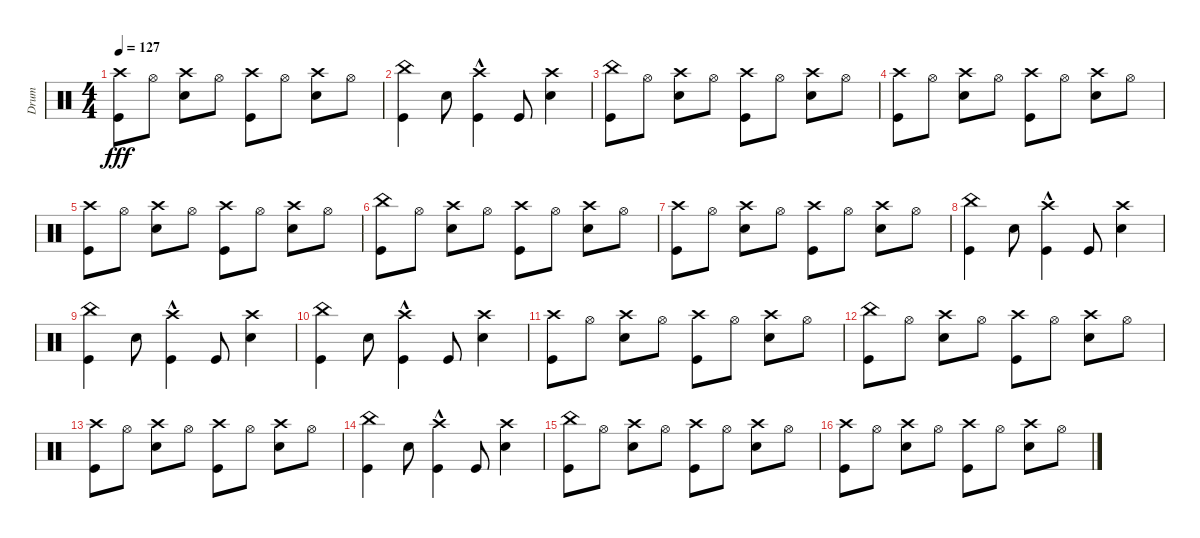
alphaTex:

\track ("Drum" "Drum") {instrument percussion}
\staff {score}
\articulation defaults
\ts (4 4)
\tempo 127
\clef neutral
\ks c
("Kick (hit)" "Crash high (hit)").8{dy fff} "Hi-Hat (open)".8 ("Crash high (hit)" "Electric Snare (hit)").8 "Hi-Hat (open)".8 ("Kick (hit)" "Crash high (hit)").8 "Hi-Hat (open)".8 ("Crash high (hit)" "Electric Snare (hit)").8 "Hi-Hat (open)".8 |
("Kick (hit)" "China (hit)").4 "Electric Snare (hit)".8 ("Crash high (hit)"{hac} "Kick (hit)").4 "Kick (hit)".8 ("Crash high (hit)" "Electric Snare (hit)").4 |
("Kick (hit)" "China (hit)").8 "Hi-Hat (open)".8 ("Crash high (hit)" "Electric Snare (hit)").8 "Hi-Hat (open)".8 ("Kick (hit)" "Crash high (hit)").8 "Hi-Hat (open)".8 ("Crash high (hit)" "Electric Snare (hit)").8 "Hi-Hat (open)".8 |
("Kick (hit)" "Crash high (hit)").8 "Hi-Hat (open)".8 ("Crash high (hit)" "Electric Snare (hit)").8 "Hi-Hat (open)".8 ("Kick (hit)" "Crash high (hit)").8 "Hi-Hat (open)".8 ("Crash high (hit)" "Electric Snare (hit)").8 "Hi-Hat (open)".8 |
("Kick (hit)" "Crash high (hit)").8 "Hi-Hat (open)".8 ("Crash high (hit)" "Electric Snare (hit)").8 "Hi-Hat (open)".8 ("Kick (hit)" "Crash high (hit)").8 "Hi-Hat (open)".8 ("Crash high (hit)" "Electric Snare (hit)").8 "Hi-Hat (open)".8 |
("Kick (hit)" "China (hit)").8 "Hi-Hat (open)".8 ("Crash high (hit)" "Electric Snare (hit)").8 "Hi-Hat (open)".8 ("Kick (hit)" "Crash high (hit)").8 "Hi-Hat (open)".8 ("Crash high (hit)" "Electric Snare (hit)").8 "Hi-Hat (open)".8 |
("Kick (hit)" "Crash high (hit)").8 "Hi-Hat (open)".8 ("Crash high (hit)" "Electric Snare (hit)").8 "Hi-Hat (open)".8 ("Kick (hit)" "Crash high (hit)").8 "Hi-Hat (open)".8 ("Crash high (hit)" "Electric Snare (hit)").8 "Hi-Hat (open)".8 |
("Kick (hit)" "China (hit)").4 "Electric Snare (hit)".8 ("Crash high (hit)"{hac} "Kick (hit)").4 "Kick (hit)".8 ("Crash high (hit)" "Electric Snare (hit)").4 |
("Kick (hit)" "China (hit)").4 "Electric Snare (hit)".8 ("Crash high (hit)"{hac} "Kick (hit)").4 "Kick (hit)".8 ("Crash high (hit)" "Electric Snare (hit)").4 |
("Kick (hit)" "China (hit)").4 "Electric Snare (hit)".8 ("Crash high (hit)"{hac} "Kick (hit)").4 "Kick (hit)".8 ("Crash high (hit)" "Electric Snare (hit)").4 |
("Kick (hit)" "Crash high (hit)").8 "Hi-Hat (open)".8 ("Crash high (hit)" "Electric Snare (hit)").8 "Hi-Hat (open)".8 ("Kick (hit)" "Crash high (hit)").8 "Hi-Hat (open)".8 ("Crash high (hit)" "Electric Snare (hit)").8 "Hi-Hat (open)".8 |
("Kick (hit)" "China (hit)").8 "Hi-Hat (open)".8 ("Crash high (hit)" "Electric Snare (hit)").8 "Hi-Hat (open)".8 ("Kick (hit)" "Crash high (hit)").8 "Hi-Hat (open)".8 ("Crash high (hit)" "Electric Snare (hit)").8 "Hi-Hat (open)".8 |
("Kick (hit)" "Crash high (hit)").8 "Hi-Hat (open)".8 ("Crash high (hit)" "Electric Snare (hit)").8 "Hi-Hat (open)".8 ("Kick (hit)" "Crash high (hit)").8 "Hi-Hat (open)".8 ("Crash high (hit)" "Electric Snare (hit)").8 "Hi-Hat (open)".8 |
("Kick (hit)" "China (hit)").4 "Electric Snare (hit)".8 ("Crash high (hit)"{hac} "Kick (hit)").4 "Kick (hit)".8 ("Crash high (hit)" "Electric Snare (hit)").4 |
("Kick (hit)" "China (hit)").8 "Hi-Hat (open)".8 ("Crash high (hit)" "Electric Snare (hit)").8 "Hi-Hat (open)".8 ("Kick (hit)" "Crash high (hit)").8 "Hi-Hat (open)".8 ("Crash high (hit)" "Electric Snare (hit)").8 "Hi-Hat (open)".8 |
("Kick (hit)" "Crash high (hit)").8 "Hi-Hat (open)".8 ("Crash high (hit)" "Electric Snare (hit)").8 "Hi-Hat (open)".8 ("Kick (hit)" "Crash high (hit)").8 "Hi-Hat (open)".8 ("Crash high (hit)" "Electric Snare (hit)").8 "Hi-Hat (open)".8
